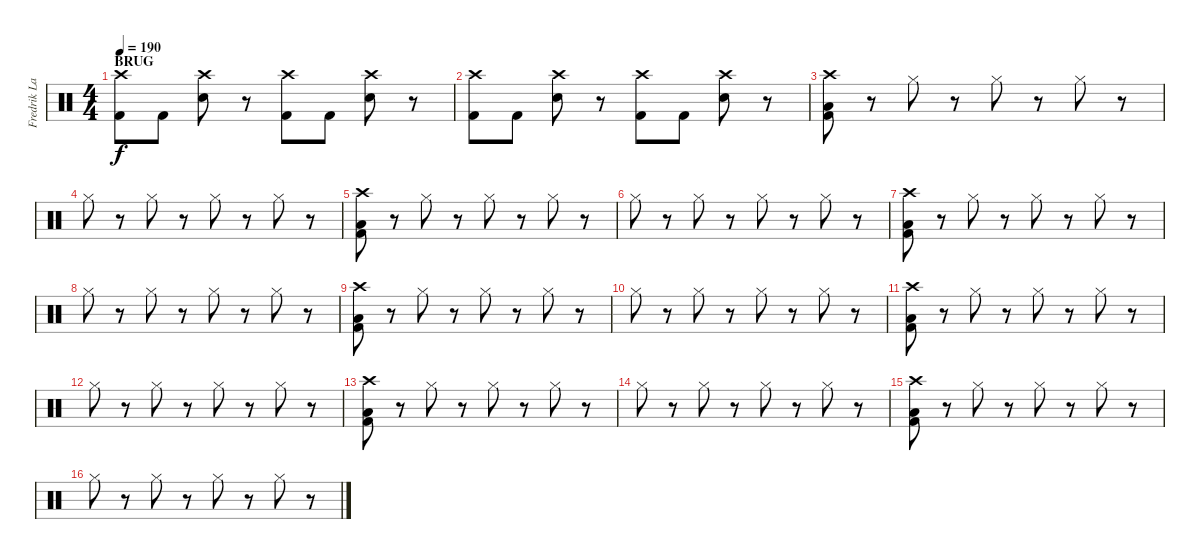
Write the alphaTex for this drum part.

\track ("Fredrik Larson" "Fredrik La") {instrument percussion}
\staff {score}
\articulation defaults
\ts (4 4)
\section ("" "BRUG")
\tempo 190
\clef neutral
\ks c
("Crash high (hit)" "Kick (hit) 2").8{dy f} "Kick (hit) 2".8 ("Crash high (hit)" "Snare (hit) 2").8 r.8 ("Crash high (hit)" "Kick (hit) 2").8 "Kick (hit) 2".8 ("Crash high (hit)" "Snare (hit) 2").8 r.8 |
("Crash high (hit)" "Kick (hit) 2").8 "Kick (hit) 2".8 ("Crash high (hit)" "Snare (hit) 2").8 r.8 ("Crash high (hit)" "Kick (hit) 2").8 "Kick (hit) 2".8 ("Crash high (hit)" "Snare (hit) 2").8 r.8 |
("Crash high (hit)" "Low Floor Tom (hit)" "Kick (hit) 2").8 r.8 "Hi-Hat (closed)".8 r.8 "Hi-Hat (closed)".8 r.8 "Hi-Hat (closed)".8 r.8 |
"Hi-Hat (closed)".8 r.8 "Hi-Hat (closed)".8 r.8 "Hi-Hat (closed)".8 r.8 "Hi-Hat (closed)".8 r.8 |
("Crash high (hit)" "Low Floor Tom (hit)" "Kick (hit) 2").8 r.8 "Hi-Hat (closed)".8 r.8 "Hi-Hat (closed)".8 r.8 "Hi-Hat (closed)".8 r.8 |
"Hi-Hat (closed)".8 r.8 "Hi-Hat (closed)".8 r.8 "Hi-Hat (closed)".8 r.8 "Hi-Hat (closed)".8 r.8 |
("Crash high (hit)" "Low Floor Tom (hit)" "Kick (hit) 2").8 r.8 "Hi-Hat (closed)".8 r.8 "Hi-Hat (closed)".8 r.8 "Hi-Hat (closed)".8 r.8 |
"Hi-Hat (closed)".8 r.8 "Hi-Hat (closed)".8 r.8 "Hi-Hat (closed)".8 r.8 "Hi-Hat (closed)".8 r.8 |
("Crash high (hit)" "Low Floor Tom (hit)" "Kick (hit) 2").8 r.8 "Hi-Hat (closed)".8 r.8 "Hi-Hat (closed)".8 r.8 "Hi-Hat (closed)".8 r.8 |
"Hi-Hat (closed)".8 r.8 "Hi-Hat (closed)".8 r.8 "Hi-Hat (closed)".8 r.8 "Hi-Hat (closed)".8 r.8 |
("Crash high (hit)" "Low Floor Tom (hit)" "Kick (hit) 2").8 r.8 "Hi-Hat (closed)".8 r.8 "Hi-Hat (closed)".8 r.8 "Hi-Hat (closed)".8 r.8 |
"Hi-Hat (closed)".8 r.8 "Hi-Hat (closed)".8 r.8 "Hi-Hat (closed)".8 r.8 "Hi-Hat (closed)".8 r.8 |
("Crash high (hit)" "Low Floor Tom (hit)" "Kick (hit) 2").8 r.8 "Hi-Hat (closed)".8 r.8 "Hi-Hat (closed)".8 r.8 "Hi-Hat (closed)".8 r.8 |
"Hi-Hat (closed)".8 r.8 "Hi-Hat (closed)".8 r.8 "Hi-Hat (closed)".8 r.8 "Hi-Hat (closed)".8 r.8 |
("Crash high (hit)" "Low Floor Tom (hit)" "Kick (hit) 2").8 r.8 "Hi-Hat (closed)".8 r.8 "Hi-Hat (closed)".8 r.8 "Hi-Hat (closed)".8 r.8 |
"Hi-Hat (closed)".8 r.8 "Hi-Hat (closed)".8 r.8 "Hi-Hat (closed)".8 r.8 "Hi-Hat (closed)".8 r.8
